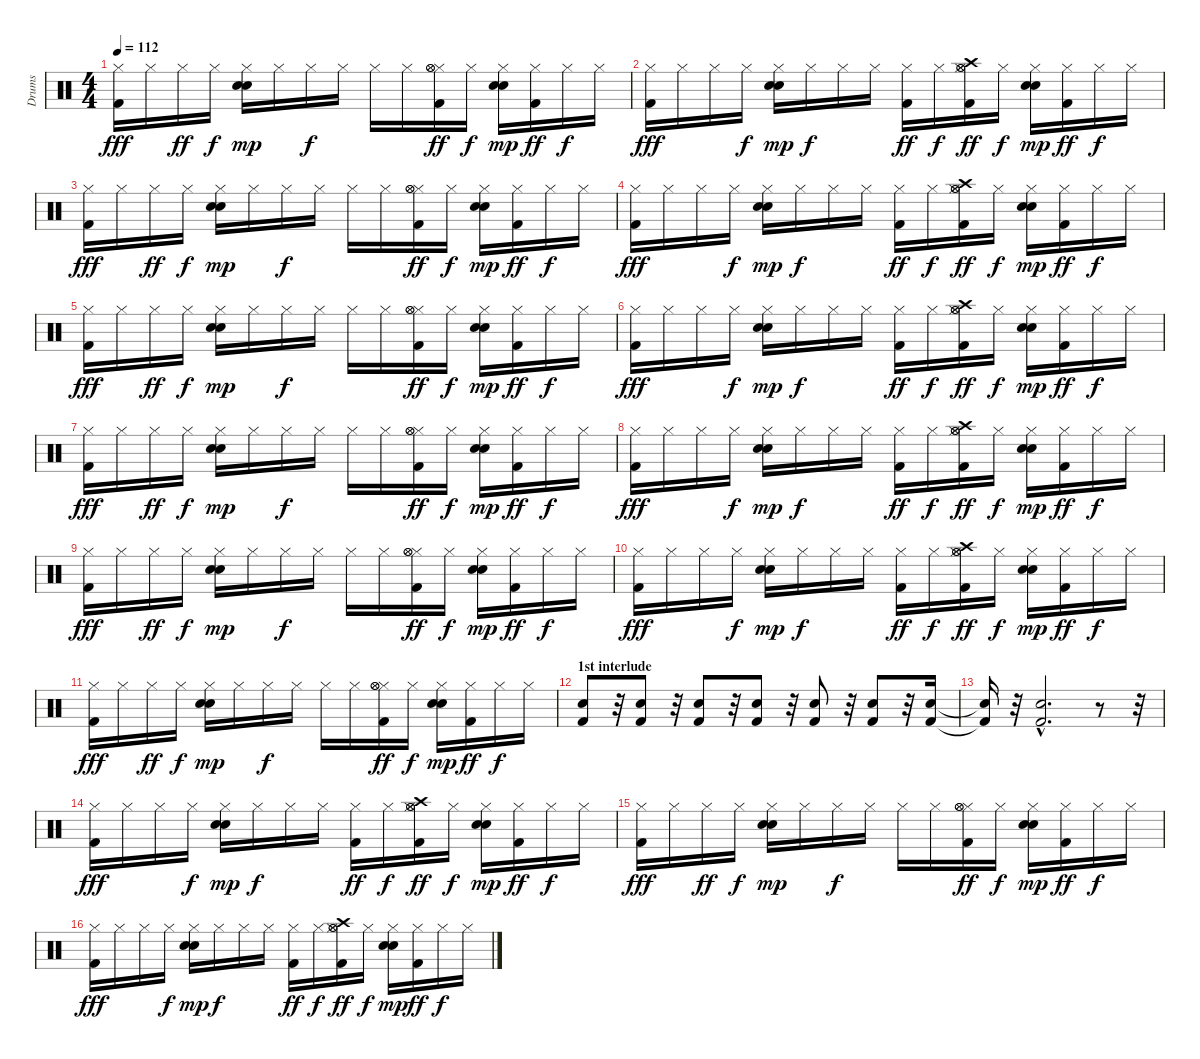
\track ("Drums" "Drums") {instrument percussion}
\staff {score}
\articulation defaults
\ts (4 4)
\tempo 112
\clef neutral
\ks c
("Kick (hit) 2" "Hi-Hat (closed)").16{dy fff} "Hi-Hat (closed)".16 "Hi-Hat (closed)".16{dy ff} "Hi-Hat (closed)".16{dy f} ("Snare (hit) 2" "Hi-Hat (closed)" "Hand Clap (hit)").16{dy mp} "Hi-Hat (closed)".16 "Hi-Hat (closed)".16{dy f} "Hi-Hat (closed)".16 "Hi-Hat (closed)".16 "Hi-Hat (closed)".16 ("Kick (hit) 2" "Hi-Hat (closed)" "Hi-Hat (open)" "Hi-Hat (open)").16{dy ff} "Hi-Hat (closed)".16{dy f} ("Snare (hit) 2" "Hi-Hat (closed)" "Hand Clap (hit)").16{dy mp} ("Kick (hit) 2" "Hi-Hat (closed)").16{dy ff} "Hi-Hat (closed)".16{dy f} "Hi-Hat (closed)".16 |
("Kick (hit) 2" "Hi-Hat (closed)").16{dy fff} "Hi-Hat (closed)".16 "Hi-Hat (closed)".16 "Hi-Hat (closed)".16{dy f} ("Snare (hit) 2" "Hi-Hat (closed)" "Hand Clap (hit)").16{dy mp} "Hi-Hat (closed)".16{dy f} "Hi-Hat (closed)".16 "Hi-Hat (closed)".16 ("Kick (hit) 2" "Hi-Hat (closed)").16{dy ff} "Hi-Hat (closed)".16{dy f} ("Kick (hit) 2" "Crash high (hit)" "Hi-Hat (closed)" "Hi-Hat (open)" "Hi-Hat (open)").16{dy ff} "Hi-Hat (closed)".16{dy f} ("Snare (hit) 2" "Hi-Hat (closed)" "Hand Clap (hit)").16{dy mp} ("Kick (hit) 2" "Hi-Hat (closed)").16{dy ff} "Hi-Hat (closed)".16{dy f} "Hi-Hat (closed)".16 |
("Kick (hit) 2" "Hi-Hat (closed)").16{dy fff} "Hi-Hat (closed)".16 "Hi-Hat (closed)".16{dy ff} "Hi-Hat (closed)".16{dy f} ("Snare (hit) 2" "Hi-Hat (closed)" "Hand Clap (hit)").16{dy mp} "Hi-Hat (closed)".16 "Hi-Hat (closed)".16{dy f} "Hi-Hat (closed)".16 "Hi-Hat (closed)".16 "Hi-Hat (closed)".16 ("Kick (hit) 2" "Hi-Hat (closed)" "Hi-Hat (open)" "Hi-Hat (open)").16{dy ff} "Hi-Hat (closed)".16{dy f} ("Snare (hit) 2" "Hi-Hat (closed)" "Hand Clap (hit)").16{dy mp} ("Kick (hit) 2" "Hi-Hat (closed)").16{dy ff} "Hi-Hat (closed)".16{dy f} "Hi-Hat (closed)".16 |
("Kick (hit) 2" "Hi-Hat (closed)").16{dy fff} "Hi-Hat (closed)".16 "Hi-Hat (closed)".16 "Hi-Hat (closed)".16{dy f} ("Snare (hit) 2" "Hi-Hat (closed)" "Hand Clap (hit)").16{dy mp} "Hi-Hat (closed)".16{dy f} "Hi-Hat (closed)".16 "Hi-Hat (closed)".16 ("Kick (hit) 2" "Hi-Hat (closed)").16{dy ff} "Hi-Hat (closed)".16{dy f} ("Kick (hit) 2" "Crash high (hit)" "Hi-Hat (closed)" "Hi-Hat (open)" "Hi-Hat (open)").16{dy ff} "Hi-Hat (closed)".16{dy f} ("Snare (hit) 2" "Hi-Hat (closed)" "Hand Clap (hit)").16{dy mp} ("Kick (hit) 2" "Hi-Hat (closed)").16{dy ff} "Hi-Hat (closed)".16{dy f} "Hi-Hat (closed)".16 |
("Kick (hit) 2" "Hi-Hat (closed)").16{dy fff} "Hi-Hat (closed)".16 "Hi-Hat (closed)".16{dy ff} "Hi-Hat (closed)".16{dy f} ("Snare (hit) 2" "Hi-Hat (closed)" "Hand Clap (hit)").16{dy mp} "Hi-Hat (closed)".16 "Hi-Hat (closed)".16{dy f} "Hi-Hat (closed)".16 "Hi-Hat (closed)".16 "Hi-Hat (closed)".16 ("Kick (hit) 2" "Hi-Hat (closed)" "Hi-Hat (open)" "Hi-Hat (open)").16{dy ff} "Hi-Hat (closed)".16{dy f} ("Snare (hit) 2" "Hi-Hat (closed)" "Hand Clap (hit)").16{dy mp} ("Kick (hit) 2" "Hi-Hat (closed)").16{dy ff} "Hi-Hat (closed)".16{dy f} "Hi-Hat (closed)".16 |
("Kick (hit) 2" "Hi-Hat (closed)").16{dy fff} "Hi-Hat (closed)".16 "Hi-Hat (closed)".16 "Hi-Hat (closed)".16{dy f} ("Snare (hit) 2" "Hi-Hat (closed)" "Hand Clap (hit)").16{dy mp} "Hi-Hat (closed)".16{dy f} "Hi-Hat (closed)".16 "Hi-Hat (closed)".16 ("Kick (hit) 2" "Hi-Hat (closed)").16{dy ff} "Hi-Hat (closed)".16{dy f} ("Kick (hit) 2" "Crash high (hit)" "Hi-Hat (closed)" "Hi-Hat (open)" "Hi-Hat (open)").16{dy ff} "Hi-Hat (closed)".16{dy f} ("Snare (hit) 2" "Hi-Hat (closed)" "Hand Clap (hit)").16{dy mp} ("Kick (hit) 2" "Hi-Hat (closed)").16{dy ff} "Hi-Hat (closed)".16{dy f} "Hi-Hat (closed)".16 |
("Kick (hit) 2" "Hi-Hat (closed)").16{dy fff} "Hi-Hat (closed)".16 "Hi-Hat (closed)".16{dy ff} "Hi-Hat (closed)".16{dy f} ("Snare (hit) 2" "Hi-Hat (closed)" "Hand Clap (hit)").16{dy mp} "Hi-Hat (closed)".16 "Hi-Hat (closed)".16{dy f} "Hi-Hat (closed)".16 "Hi-Hat (closed)".16 "Hi-Hat (closed)".16 ("Kick (hit) 2" "Hi-Hat (closed)" "Hi-Hat (open)" "Hi-Hat (open)").16{dy ff} "Hi-Hat (closed)".16{dy f} ("Snare (hit) 2" "Hi-Hat (closed)" "Hand Clap (hit)").16{dy mp} ("Kick (hit) 2" "Hi-Hat (closed)").16{dy ff} "Hi-Hat (closed)".16{dy f} "Hi-Hat (closed)".16 |
("Kick (hit) 2" "Hi-Hat (closed)").16{dy fff} "Hi-Hat (closed)".16 "Hi-Hat (closed)".16 "Hi-Hat (closed)".16{dy f} ("Snare (hit) 2" "Hi-Hat (closed)" "Hand Clap (hit)").16{dy mp} "Hi-Hat (closed)".16{dy f} "Hi-Hat (closed)".16 "Hi-Hat (closed)".16 ("Kick (hit) 2" "Hi-Hat (closed)").16{dy ff} "Hi-Hat (closed)".16{dy f} ("Kick (hit) 2" "Crash high (hit)" "Hi-Hat (closed)" "Hi-Hat (open)" "Hi-Hat (open)").16{dy ff} "Hi-Hat (closed)".16{dy f} ("Snare (hit) 2" "Hi-Hat (closed)" "Hand Clap (hit)").16{dy mp} ("Kick (hit) 2" "Hi-Hat (closed)").16{dy ff} "Hi-Hat (closed)".16{dy f} "Hi-Hat (closed)".16 |
("Kick (hit) 2" "Hi-Hat (closed)").16{dy fff} "Hi-Hat (closed)".16 "Hi-Hat (closed)".16{dy ff} "Hi-Hat (closed)".16{dy f} ("Snare (hit) 2" "Hi-Hat (closed)" "Hand Clap (hit)").16{dy mp} "Hi-Hat (closed)".16 "Hi-Hat (closed)".16{dy f} "Hi-Hat (closed)".16 "Hi-Hat (closed)".16 "Hi-Hat (closed)".16 ("Kick (hit) 2" "Hi-Hat (closed)" "Hi-Hat (open)" "Hi-Hat (open)").16{dy ff} "Hi-Hat (closed)".16{dy f} ("Snare (hit) 2" "Hi-Hat (closed)" "Hand Clap (hit)").16{dy mp} ("Kick (hit) 2" "Hi-Hat (closed)").16{dy ff} "Hi-Hat (closed)".16{dy f} "Hi-Hat (closed)".16 |
("Kick (hit) 2" "Hi-Hat (closed)").16{dy fff} "Hi-Hat (closed)".16 "Hi-Hat (closed)".16 "Hi-Hat (closed)".16{dy f} ("Snare (hit) 2" "Hi-Hat (closed)" "Hand Clap (hit)").16{dy mp} "Hi-Hat (closed)".16{dy f} "Hi-Hat (closed)".16 "Hi-Hat (closed)".16 ("Kick (hit) 2" "Hi-Hat (closed)").16{dy ff} "Hi-Hat (closed)".16{dy f} ("Kick (hit) 2" "Crash high (hit)" "Hi-Hat (closed)" "Hi-Hat (open)" "Hi-Hat (open)").16{dy ff} "Hi-Hat (closed)".16{dy f} ("Snare (hit) 2" "Hi-Hat (closed)" "Hand Clap (hit)").16{dy mp} ("Kick (hit) 2" "Hi-Hat (closed)").16{dy ff} "Hi-Hat (closed)".16{dy f} "Hi-Hat (closed)".16 |
("Kick (hit) 2" "Hi-Hat (closed)").16{dy fff} "Hi-Hat (closed)".16 "Hi-Hat (closed)".16{dy ff} "Hi-Hat (closed)".16{dy f} ("Snare (hit) 2" "Hi-Hat (closed)" "Hand Clap (hit)").16{dy mp} "Hi-Hat (closed)".16 "Hi-Hat (closed)".16{dy f} "Hi-Hat (closed)".16 "Hi-Hat (closed)".16 "Hi-Hat (closed)".16 ("Kick (hit) 2" "Hi-Hat (closed)" "Hi-Hat (open)" "Hi-Hat (open)").16{dy ff} "Hi-Hat (closed)".16{dy f} ("Snare (hit) 2" "Hi-Hat (closed)" "Hand Clap (hit)").16{dy mp} ("Kick (hit) 2" "Hi-Hat (closed)").16{dy ff} "Hi-Hat (closed)".16{dy f} "Hi-Hat (closed)".16 |
\section ("" "1st interlude")
("Kick (hit) 2" "Snare (hit) 2").8 r.32 ("Snare (hit) 2" "Kick (hit) 2").8 r.32 ("Kick (hit) 2" "Snare (hit) 2").8 r.32 ("Kick (hit) 2" "Snare (hit) 2").8 r.32 ("Kick (hit) 2" "Snare (hit) 2").8 r.32 ("Kick (hit) 2" "Snare (hit) 2").8 r.32 ("Kick (hit) 2" "Snare (hit) 2").16 |
("Kick (hit) 2"{t} "Snare (hit) 2"{t}).16 r.32 ("Kick (hit) 2"{hac} "Snare (hit) 2"{hac}).2{d} r.8 r.32 |
("Kick (hit) 2" "Hi-Hat (closed)").16{dy fff} "Hi-Hat (closed)".16 "Hi-Hat (closed)".16 "Hi-Hat (closed)".16{dy f} ("Snare (hit) 2" "Hi-Hat (closed)" "Hand Clap (hit)").16{dy mp} "Hi-Hat (closed)".16{dy f} "Hi-Hat (closed)".16 "Hi-Hat (closed)".16 ("Kick (hit) 2" "Hi-Hat (closed)").16{dy ff} "Hi-Hat (closed)".16{dy f} ("Kick (hit) 2" "Crash high (hit)" "Hi-Hat (closed)" "Hi-Hat (open)" "Hi-Hat (open)").16{dy ff} "Hi-Hat (closed)".16{dy f} ("Snare (hit) 2" "Hi-Hat (closed)" "Hand Clap (hit)").16{dy mp} ("Kick (hit) 2" "Hi-Hat (closed)").16{dy ff} "Hi-Hat (closed)".16{dy f} "Hi-Hat (closed)".16 |
("Kick (hit) 2" "Hi-Hat (closed)").16{dy fff} "Hi-Hat (closed)".16 "Hi-Hat (closed)".16{dy ff} "Hi-Hat (closed)".16{dy f} ("Snare (hit) 2" "Hi-Hat (closed)" "Hand Clap (hit)").16{dy mp} "Hi-Hat (closed)".16 "Hi-Hat (closed)".16{dy f} "Hi-Hat (closed)".16 "Hi-Hat (closed)".16 "Hi-Hat (closed)".16 ("Kick (hit) 2" "Hi-Hat (closed)" "Hi-Hat (open)" "Hi-Hat (open)").16{dy ff} "Hi-Hat (closed)".16{dy f} ("Snare (hit) 2" "Hi-Hat (closed)" "Hand Clap (hit)").16{dy mp} ("Kick (hit) 2" "Hi-Hat (closed)").16{dy ff} "Hi-Hat (closed)".16{dy f} "Hi-Hat (closed)".16 |
("Kick (hit) 2" "Hi-Hat (closed)").16{dy fff} "Hi-Hat (closed)".16 "Hi-Hat (closed)".16 "Hi-Hat (closed)".16{dy f} ("Snare (hit) 2" "Hi-Hat (closed)" "Hand Clap (hit)").16{dy mp} "Hi-Hat (closed)".16{dy f} "Hi-Hat (closed)".16 "Hi-Hat (closed)".16 ("Kick (hit) 2" "Hi-Hat (closed)").16{dy ff} "Hi-Hat (closed)".16{dy f} ("Kick (hit) 2" "Crash high (hit)" "Hi-Hat (closed)" "Hi-Hat (open)" "Hi-Hat (open)").16{dy ff} "Hi-Hat (closed)".16{dy f} ("Snare (hit) 2" "Hi-Hat (closed)" "Hand Clap (hit)").16{dy mp} ("Kick (hit) 2" "Hi-Hat (closed)").16{dy ff} "Hi-Hat (closed)".16{dy f} "Hi-Hat (closed)".16
